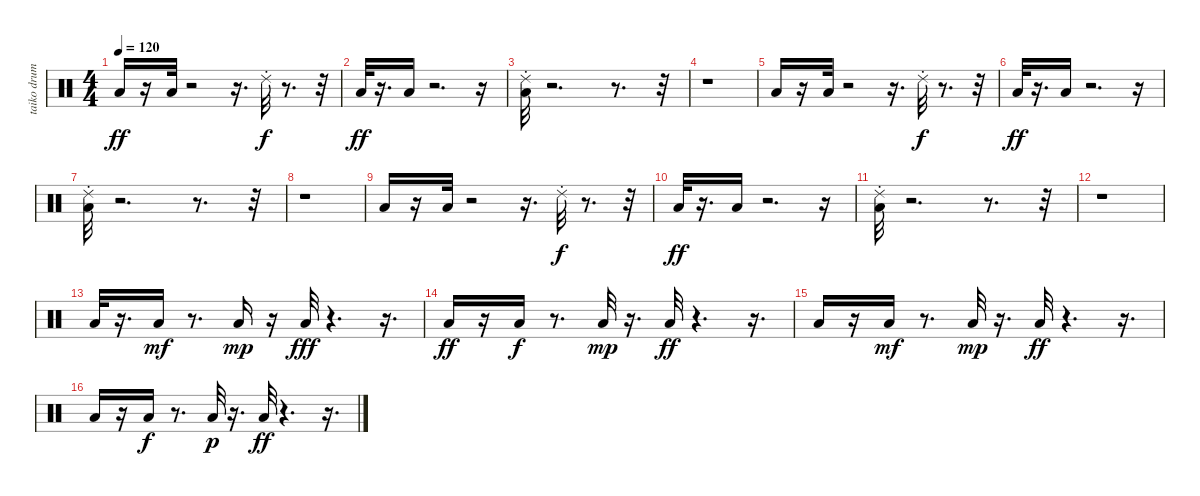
\track ("taiko drum" "taiko drum") {instrument percussion}
\staff {score}
\articulation defaults
\ts (4 4)
\tempo 120
\clef neutral
\ks c "Low Floor Tom (hit)".16{dy ff}
r.16 "Low Floor Tom (hit)".32 r.2 r.16{d} "Ride (choke) 2".32{dy f} r.8{d} r.32 |
"Low Floor Tom (hit)".32{dy ff} r.16{d} "Low Floor Tom (hit)".16 r.2{d} r.16 |
("Ride (choke) 2" "Low Floor Tom (hit)").32 r.2{d} r.8{d} r.32 |
r.1 |
"Low Floor Tom (hit)".16 r.16 "Low Floor Tom (hit)".32 r.2 r.16{d} "Ride (choke) 2".32{dy f} r.8{d} r.32 |
"Low Floor Tom (hit)".32{dy ff} r.16{d} "Low Floor Tom (hit)".16 r.2{d} r.16 |
("Ride (choke) 2" "Low Floor Tom (hit)").32 r.2{d} r.8{d} r.32 |
r.1 |
"Low Floor Tom (hit)".16 r.16 "Low Floor Tom (hit)".32 r.2 r.16{d} "Ride (choke) 2".32{dy f} r.8{d} r.32 |
"Low Floor Tom (hit)".32{dy ff} r.16{d} "Low Floor Tom (hit)".16 r.2{d} r.16 |
("Ride (choke) 2" "Low Floor Tom (hit)").32 r.2{d} r.8{d} r.32 |
r.1 |
"Low Floor Tom (hit)".32 r.16{d} "Low Floor Tom (hit)".16{dy mf} r.8{d} "Low Floor Tom (hit)".16{dy mp} r.16 "Low Floor Tom (hit)".32{dy fff} r.4{d} r.16{d} |
"Low Floor Tom (hit)".16{dy ff} r.16 "Low Floor Tom (hit)".16{dy f} r.8{d} "Low Floor Tom (hit)".32{dy mp} r.16{d} "Low Floor Tom (hit)".32{dy ff} r.4{d} r.16{d} |
"Low Floor Tom (hit)".16 r.16 "Low Floor Tom (hit)".16{dy mf} r.8{d} "Low Floor Tom (hit)".32{dy mp} r.16{d} "Low Floor Tom (hit)".32{dy ff} r.4{d} r.16{d} |
"Low Floor Tom (hit)".16 r.16 "Low Floor Tom (hit)".16{dy f} r.8{d} "Low Floor Tom (hit)".32{dy p} r.16{d} "Low Floor Tom (hit)".32{dy ff} r.4{d} r.16{d}
